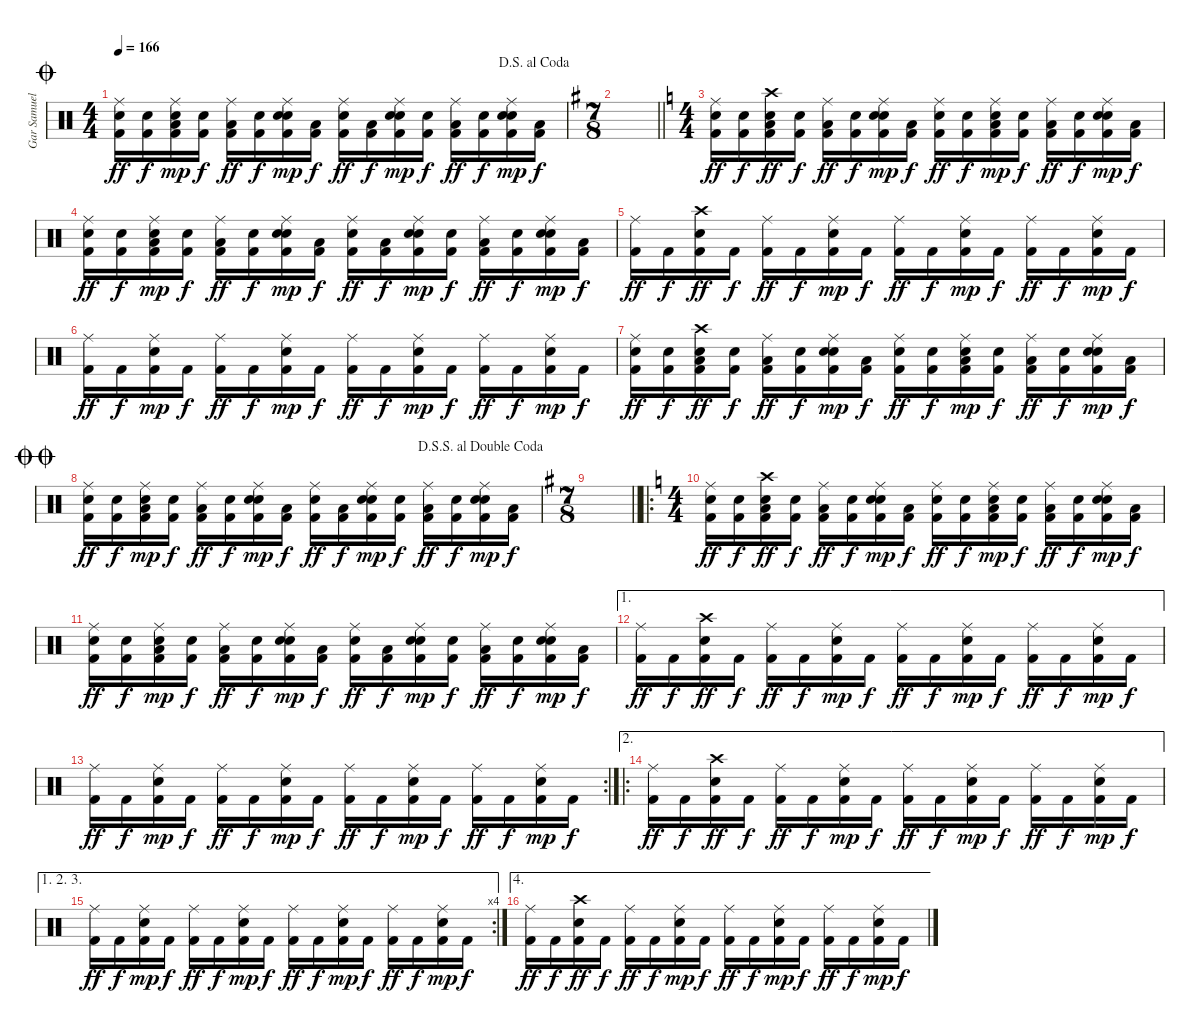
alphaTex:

\track ("Gar Samuelson" "Gar Samuel") {instrument percussion}
\staff {score}
\articulation defaults
\ts (4 4)
\jump coda
\jump dalsegnoalcoda
\tempo 166
\clef neutral
\ks c
("Ride (middle)" "Kick (hit) 2" "Electric Snare (hit)").16{dy ff} ("Kick (hit) 2" "Electric Snare (hit)").16{dy f} ("Kick (hit) 2" "Snare (hit) 2" "Ride (middle)" "Low Tom (hit)").16{dy mp} ("Kick (hit) 2" "Electric Snare (hit)").16{dy f} ("Ride (middle)" "Kick (hit) 2" "Low Tom (hit)").16{dy ff} ("Kick (hit) 2" "Electric Snare (hit)").16{dy f} ("Kick (hit) 2" "Snare (hit) 2" "Ride (middle)" "Electric Snare (hit)").16{dy mp} ("Kick (hit) 2" "Low Tom (hit)").16{dy f} ("Ride (middle)" "Kick (hit) 2" "Electric Snare (hit)").16{dy ff} ("Kick (hit) 2" "Low Tom (hit)").16{dy f} ("Kick (hit) 2" "Snare (hit) 2" "Ride (middle)" "Electric Snare (hit)").16{dy mp} ("Kick (hit) 2" "Electric Snare (hit)").16{dy f} ("Ride (middle)" "Kick (hit) 2" "Low Tom (hit)").16{dy ff} ("Kick (hit) 2" "Electric Snare (hit)").16{dy f} ("Kick (hit) 2" "Snare (hit) 2" "Ride (middle)" "Electric Snare (hit)").16{dy mp} ("Kick (hit) 2" "Low Tom (hit)").16{dy f} |
\ts (7 8)
\barLineRight lightlight
\ks g
|
\ts (4 4)
\ks c
("Ride (middle)" "Kick (hit) 2" "Electric Snare (hit)").16{dy ff} ("Kick (hit) 2" "Electric Snare (hit)").16{dy f} ("Snare (hit) 2" "Crash high (hit)" "Kick (hit) 2" "Low Tom (hit)").16{dy ff} ("Kick (hit) 2" "Electric Snare (hit)").16{dy f} ("Ride (middle)" "Kick (hit) 2" "Low Tom (hit)").16{dy ff} ("Kick (hit) 2" "Electric Snare (hit)").16{dy f} ("Kick (hit) 2" "Snare (hit) 2" "Ride (middle)" "Electric Snare (hit)").16{dy mp} ("Kick (hit) 2" "Low Tom (hit)").16{dy f} ("Ride (middle)" "Kick (hit) 2" "Electric Snare (hit)").16{dy ff} ("Kick (hit) 2" "Electric Snare (hit)").16{dy f} ("Kick (hit) 2" "Snare (hit) 2" "Ride (middle)" "Low Tom (hit)").16{dy mp} ("Kick (hit) 2" "Electric Snare (hit)").16{dy f} ("Ride (middle)" "Kick (hit) 2" "Low Tom (hit)").16{dy ff} ("Kick (hit) 2" "Electric Snare (hit)").16{dy f} ("Kick (hit) 2" "Snare (hit) 2" "Ride (middle)" "Electric Snare (hit)").16{dy mp} ("Kick (hit) 2" "Low Tom (hit)").16{dy f} |
("Ride (middle)" "Kick (hit) 2" "Electric Snare (hit)").16{dy ff} ("Kick (hit) 2" "Electric Snare (hit)").16{dy f} ("Kick (hit) 2" "Snare (hit) 2" "Ride (middle)" "Low Tom (hit)").16{dy mp} ("Kick (hit) 2" "Electric Snare (hit)").16{dy f} ("Ride (middle)" "Kick (hit) 2" "Low Tom (hit)").16{dy ff} ("Kick (hit) 2" "Electric Snare (hit)").16{dy f} ("Kick (hit) 2" "Snare (hit) 2" "Ride (middle)" "Electric Snare (hit)").16{dy mp} ("Kick (hit) 2" "Low Tom (hit)").16{dy f} ("Ride (middle)" "Kick (hit) 2" "Electric Snare (hit)").16{dy ff} ("Kick (hit) 2" "Low Tom (hit)").16{dy f} ("Kick (hit) 2" "Snare (hit) 2" "Ride (middle)" "Electric Snare (hit)").16{dy mp} ("Kick (hit) 2" "Electric Snare (hit)").16{dy f} ("Ride (middle)" "Kick (hit) 2" "Low Tom (hit)").16{dy ff} ("Kick (hit) 2" "Electric Snare (hit)").16{dy f} ("Kick (hit) 2" "Snare (hit) 2" "Ride (middle)" "Electric Snare (hit)").16{dy mp} ("Kick (hit) 2" "Low Tom (hit)").16{dy f} |
("Ride (middle)" "Kick (hit) 2").16{dy ff} "Kick (hit) 2".16{dy f} ("Snare (hit) 2" "Crash high (hit)" "Kick (hit) 2").16{dy ff} "Kick (hit) 2".16{dy f} ("Ride (middle)" "Kick (hit) 2").16{dy ff} "Kick (hit) 2".16{dy f} ("Kick (hit) 2" "Snare (hit) 2" "Ride (middle)").16{dy mp} "Kick (hit) 2".16{dy f} ("Ride (middle)" "Kick (hit) 2").16{dy ff} "Kick (hit) 2".16{dy f} ("Kick (hit) 2" "Snare (hit) 2" "Ride (middle)").16{dy mp} "Kick (hit) 2".16{dy f} ("Ride (middle)" "Kick (hit) 2").16{dy ff} "Kick (hit) 2".16{dy f} ("Kick (hit) 2" "Snare (hit) 2" "Ride (middle)").16{dy mp} "Kick (hit) 2".16{dy f} |
("Ride (middle)" "Kick (hit) 2").16{dy ff} "Kick (hit) 2".16{dy f} ("Kick (hit) 2" "Snare (hit) 2" "Ride (middle)").16{dy mp} "Kick (hit) 2".16{dy f} ("Ride (middle)" "Kick (hit) 2").16{dy ff} "Kick (hit) 2".16{dy f} ("Kick (hit) 2" "Snare (hit) 2" "Ride (middle)").16{dy mp} "Kick (hit) 2".16{dy f} ("Ride (middle)" "Kick (hit) 2").16{dy ff} "Kick (hit) 2".16{dy f} ("Kick (hit) 2" "Snare (hit) 2" "Ride (middle)").16{dy mp} "Kick (hit) 2".16{dy f} ("Ride (middle)" "Kick (hit) 2").16{dy ff} "Kick (hit) 2".16{dy f} ("Kick (hit) 2" "Snare (hit) 2" "Ride (middle)").16{dy mp} "Kick (hit) 2".16{dy f} |
("Ride (middle)" "Kick (hit) 2" "Electric Snare (hit)").16{dy ff} ("Kick (hit) 2" "Electric Snare (hit)").16{dy f} ("Snare (hit) 2" "Crash high (hit)" "Kick (hit) 2" "Low Tom (hit)").16{dy ff} ("Kick (hit) 2" "Electric Snare (hit)").16{dy f} ("Ride (middle)" "Kick (hit) 2" "Low Tom (hit)").16{dy ff} ("Kick (hit) 2" "Electric Snare (hit)").16{dy f} ("Kick (hit) 2" "Snare (hit) 2" "Ride (middle)" "Electric Snare (hit)").16{dy mp} ("Kick (hit) 2" "Low Tom (hit)").16{dy f} ("Ride (middle)" "Kick (hit) 2" "Electric Snare (hit)").16{dy ff} ("Kick (hit) 2" "Electric Snare (hit)").16{dy f} ("Kick (hit) 2" "Snare (hit) 2" "Ride (middle)" "Low Tom (hit)").16{dy mp} ("Kick (hit) 2" "Electric Snare (hit)").16{dy f} ("Ride (middle)" "Kick (hit) 2" "Low Tom (hit)").16{dy ff} ("Kick (hit) 2" "Electric Snare (hit)").16{dy f} ("Kick (hit) 2" "Snare (hit) 2" "Ride (middle)" "Electric Snare (hit)").16{dy mp} ("Kick (hit) 2" "Low Tom (hit)").16{dy f} |
\jump doublecoda
\jump dalsegnosegnoaldoublecoda
("Ride (middle)" "Kick (hit) 2" "Electric Snare (hit)").16{dy ff} ("Kick (hit) 2" "Electric Snare (hit)").16{dy f} ("Kick (hit) 2" "Snare (hit) 2" "Ride (middle)" "Low Tom (hit)").16{dy mp} ("Kick (hit) 2" "Electric Snare (hit)").16{dy f} ("Ride (middle)" "Kick (hit) 2" "Low Tom (hit)").16{dy ff} ("Kick (hit) 2" "Electric Snare (hit)").16{dy f} ("Kick (hit) 2" "Snare (hit) 2" "Ride (middle)" "Electric Snare (hit)").16{dy mp} ("Kick (hit) 2" "Low Tom (hit)").16{dy f} ("Ride (middle)" "Kick (hit) 2" "Electric Snare (hit)").16{dy ff} ("Kick (hit) 2" "Low Tom (hit)").16{dy f} ("Kick (hit) 2" "Snare (hit) 2" "Ride (middle)" "Electric Snare (hit)").16{dy mp} ("Kick (hit) 2" "Electric Snare (hit)").16{dy f} ("Ride (middle)" "Kick (hit) 2" "Low Tom (hit)").16{dy ff} ("Kick (hit) 2" "Electric Snare (hit)").16{dy f} ("Kick (hit) 2" "Snare (hit) 2" "Ride (middle)" "Electric Snare (hit)").16{dy mp} ("Kick (hit) 2" "Low Tom (hit)").16{dy f} |
\ts (7 8)
\barLineRight lightlight
\ks g
|
\ro
\ts (4 4)
\ks c
("Ride (middle)" "Kick (hit) 2" "Electric Snare (hit)").16{dy ff} ("Kick (hit) 2" "Electric Snare (hit)").16{dy f} ("Snare (hit) 2" "Crash high (hit)" "Kick (hit) 2" "Low Tom (hit)").16{dy ff} ("Kick (hit) 2" "Electric Snare (hit)").16{dy f} ("Ride (middle)" "Kick (hit) 2" "Low Tom (hit)").16{dy ff} ("Kick (hit) 2" "Electric Snare (hit)").16{dy f} ("Kick (hit) 2" "Snare (hit) 2" "Ride (middle)" "Electric Snare (hit)").16{dy mp} ("Kick (hit) 2" "Low Tom (hit)").16{dy f} ("Ride (middle)" "Kick (hit) 2" "Electric Snare (hit)").16{dy ff} ("Kick (hit) 2" "Electric Snare (hit)").16{dy f} ("Kick (hit) 2" "Snare (hit) 2" "Ride (middle)" "Low Tom (hit)").16{dy mp} ("Kick (hit) 2" "Electric Snare (hit)").16{dy f} ("Ride (middle)" "Kick (hit) 2" "Low Tom (hit)").16{dy ff} ("Kick (hit) 2" "Electric Snare (hit)").16{dy f} ("Kick (hit) 2" "Snare (hit) 2" "Ride (middle)" "Electric Snare (hit)").16{dy mp} ("Kick (hit) 2" "Low Tom (hit)").16{dy f} |
("Ride (middle)" "Kick (hit) 2" "Electric Snare (hit)").16{dy ff} ("Kick (hit) 2" "Electric Snare (hit)").16{dy f} ("Kick (hit) 2" "Snare (hit) 2" "Ride (middle)" "Low Tom (hit)").16{dy mp} ("Kick (hit) 2" "Electric Snare (hit)").16{dy f} ("Ride (middle)" "Kick (hit) 2" "Low Tom (hit)").16{dy ff} ("Kick (hit) 2" "Electric Snare (hit)").16{dy f} ("Kick (hit) 2" "Snare (hit) 2" "Ride (middle)" "Electric Snare (hit)").16{dy mp} ("Kick (hit) 2" "Low Tom (hit)").16{dy f} ("Ride (middle)" "Kick (hit) 2" "Electric Snare (hit)").16{dy ff} ("Kick (hit) 2" "Low Tom (hit)").16{dy f} ("Kick (hit) 2" "Snare (hit) 2" "Ride (middle)" "Electric Snare (hit)").16{dy mp} ("Kick (hit) 2" "Electric Snare (hit)").16{dy f} ("Ride (middle)" "Kick (hit) 2" "Low Tom (hit)").16{dy ff} ("Kick (hit) 2" "Electric Snare (hit)").16{dy f} ("Kick (hit) 2" "Snare (hit) 2" "Ride (middle)" "Electric Snare (hit)").16{dy mp} ("Kick (hit) 2" "Low Tom (hit)").16{dy f} |
\ae 1
("Ride (middle)" "Kick (hit) 2").16{dy ff} "Kick (hit) 2".16{dy f} ("Snare (hit) 2" "Crash high (hit)" "Kick (hit) 2").16{dy ff} "Kick (hit) 2".16{dy f} ("Ride (middle)" "Kick (hit) 2").16{dy ff} "Kick (hit) 2".16{dy f} ("Kick (hit) 2" "Snare (hit) 2" "Ride (middle)").16{dy mp} "Kick (hit) 2".16{dy f} ("Ride (middle)" "Kick (hit) 2").16{dy ff} "Kick (hit) 2".16{dy f} ("Kick (hit) 2" "Snare (hit) 2" "Ride (middle)").16{dy mp} "Kick (hit) 2".16{dy f} ("Ride (middle)" "Kick (hit) 2").16{dy ff} "Kick (hit) 2".16{dy f} ("Kick (hit) 2" "Snare (hit) 2" "Ride (middle)").16{dy mp} "Kick (hit) 2".16{dy f} |
\rc 2
("Ride (middle)" "Kick (hit) 2").16{dy ff} "Kick (hit) 2".16{dy f} ("Kick (hit) 2" "Snare (hit) 2" "Ride (middle)").16{dy mp} "Kick (hit) 2".16{dy f} ("Ride (middle)" "Kick (hit) 2").16{dy ff} "Kick (hit) 2".16{dy f} ("Kick (hit) 2" "Snare (hit) 2" "Ride (middle)").16{dy mp} "Kick (hit) 2".16{dy f} ("Ride (middle)" "Kick (hit) 2").16{dy ff} "Kick (hit) 2".16{dy f} ("Kick (hit) 2" "Snare (hit) 2" "Ride (middle)").16{dy mp} "Kick (hit) 2".16{dy f} ("Ride (middle)" "Kick (hit) 2").16{dy ff} "Kick (hit) 2".16{dy f} ("Kick (hit) 2" "Snare (hit) 2" "Ride (middle)").16{dy mp} "Kick (hit) 2".16{dy f} |
\ae 2
\ro
("Ride (middle)" "Kick (hit) 2").16{dy ff} "Kick (hit) 2".16{dy f} ("Snare (hit) 2" "Crash high (hit)" "Kick (hit) 2").16{dy ff} "Kick (hit) 2".16{dy f} ("Ride (middle)" "Kick (hit) 2").16{dy ff} "Kick (hit) 2".16{dy f} ("Kick (hit) 2" "Snare (hit) 2" "Ride (middle)").16{dy mp} "Kick (hit) 2".16{dy f} ("Ride (middle)" "Kick (hit) 2").16{dy ff} "Kick (hit) 2".16{dy f} ("Kick (hit) 2" "Snare (hit) 2" "Ride (middle)").16{dy mp} "Kick (hit) 2".16{dy f} ("Ride (middle)" "Kick (hit) 2").16{dy ff} "Kick (hit) 2".16{dy f} ("Kick (hit) 2" "Snare (hit) 2" "Ride (middle)").16{dy mp} "Kick (hit) 2".16{dy f} |
\ae (1 2 3)
\rc 4
("Ride (middle)" "Kick (hit) 2").16{dy ff} "Kick (hit) 2".16{dy f} ("Kick (hit) 2" "Snare (hit) 2" "Ride (middle)").16{dy mp} "Kick (hit) 2".16{dy f} ("Ride (middle)" "Kick (hit) 2").16{dy ff} "Kick (hit) 2".16{dy f} ("Kick (hit) 2" "Snare (hit) 2" "Ride (middle)").16{dy mp} "Kick (hit) 2".16{dy f} ("Ride (middle)" "Kick (hit) 2").16{dy ff} "Kick (hit) 2".16{dy f} ("Kick (hit) 2" "Snare (hit) 2" "Ride (middle)").16{dy mp} "Kick (hit) 2".16{dy f} ("Ride (middle)" "Kick (hit) 2").16{dy ff} "Kick (hit) 2".16{dy f} ("Kick (hit) 2" "Snare (hit) 2" "Ride (middle)").16{dy mp} "Kick (hit) 2".16{dy f} |
\ae 4
("Ride (middle)" "Kick (hit) 2").16{dy ff} "Kick (hit) 2".16{dy f} ("Snare (hit) 2" "Crash high (hit)" "Kick (hit) 2").16{dy ff} "Kick (hit) 2".16{dy f} ("Ride (middle)" "Kick (hit) 2").16{dy ff} "Kick (hit) 2".16{dy f} ("Kick (hit) 2" "Snare (hit) 2" "Ride (middle)").16{dy mp} "Kick (hit) 2".16{dy f} ("Ride (middle)" "Kick (hit) 2").16{dy ff} "Kick (hit) 2".16{dy f} ("Kick (hit) 2" "Snare (hit) 2" "Ride (middle)").16{dy mp} "Kick (hit) 2".16{dy f} ("Ride (middle)" "Kick (hit) 2").16{dy ff} "Kick (hit) 2".16{dy f} ("Kick (hit) 2" "Snare (hit) 2" "Ride (middle)").16{dy mp} "Kick (hit) 2".16{dy f}
